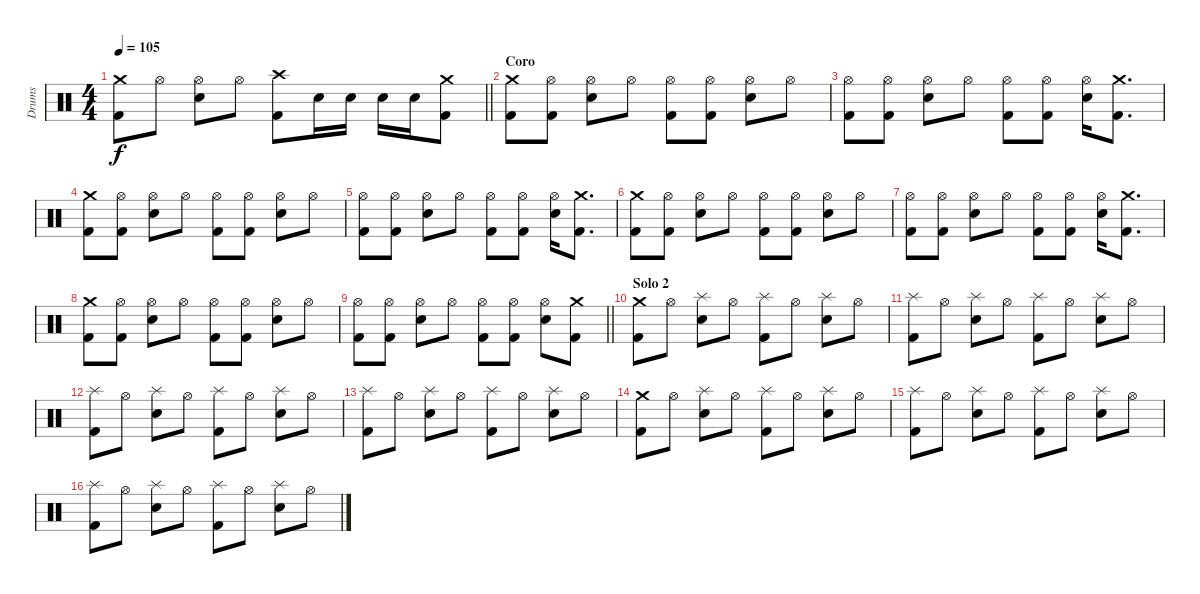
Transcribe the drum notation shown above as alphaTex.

\track ("Drums" "Drums") {instrument percussion}
\staff {score}
\articulation defaults
\ts (4 4)
\tempo 105
\clef neutral
\barLineRight lightlight
\ks c
("Crash medium (hit)" "Kick (hit) 2").8{dy f} "Hi-Hat (open)".8 ("Hi-Hat (open)" "Snare (hit) 2").8 "Hi-Hat (open)".8 ("Crash high (hit)" "Kick (hit) 2").8 "Snare (hit) 2".16 "Snare (hit) 2".16 "Snare (hit) 2".16 "Snare (hit) 2".16 ("Crash medium (hit)" "Kick (hit) 2").8 |
\section ("" "Coro")
("Crash medium (hit)" "Kick (hit) 2").8 ("Hi-Hat (open)" "Kick (hit) 2").8 ("Hi-Hat (open)" "Snare (hit) 2").8 "Hi-Hat (open)".8 ("Hi-Hat (open)" "Kick (hit) 2").8 ("Hi-Hat (open)" "Kick (hit) 2").8 ("Hi-Hat (open)" "Snare (hit) 2").8 "Hi-Hat (open)".8 |
("Hi-Hat (open)" "Kick (hit) 2").8 ("Hi-Hat (open)" "Kick (hit) 2").8 ("Hi-Hat (open)" "Snare (hit) 2").8 "Hi-Hat (open)".8 ("Hi-Hat (open)" "Kick (hit) 2").8 ("Hi-Hat (open)" "Kick (hit) 2").8 ("Hi-Hat (open)" "Snare (hit) 2").16 ("Crash medium (hit)" "Kick (hit) 2").8{d} |
("Crash medium (hit)" "Kick (hit) 2").8 ("Hi-Hat (open)" "Kick (hit) 2").8 ("Hi-Hat (open)" "Snare (hit) 2").8 "Hi-Hat (open)".8 ("Hi-Hat (open)" "Kick (hit) 2").8 ("Hi-Hat (open)" "Kick (hit) 2").8 ("Hi-Hat (open)" "Snare (hit) 2").8 "Hi-Hat (open)".8 |
("Hi-Hat (open)" "Kick (hit) 2").8 ("Hi-Hat (open)" "Kick (hit) 2").8 ("Hi-Hat (open)" "Snare (hit) 2").8 "Hi-Hat (open)".8 ("Hi-Hat (open)" "Kick (hit) 2").8 ("Hi-Hat (open)" "Kick (hit) 2").8 ("Hi-Hat (open)" "Snare (hit) 2").16 ("Crash medium (hit)" "Kick (hit) 2").8{d} |
("Crash medium (hit)" "Kick (hit) 2").8 ("Hi-Hat (open)" "Kick (hit) 2").8 ("Hi-Hat (open)" "Snare (hit) 2").8 "Hi-Hat (open)".8 ("Hi-Hat (open)" "Kick (hit) 2").8 ("Hi-Hat (open)" "Kick (hit) 2").8 ("Hi-Hat (open)" "Snare (hit) 2").8 "Hi-Hat (open)".8 |
("Hi-Hat (open)" "Kick (hit) 2").8 ("Hi-Hat (open)" "Kick (hit) 2").8 ("Hi-Hat (open)" "Snare (hit) 2").8 "Hi-Hat (open)".8 ("Hi-Hat (open)" "Kick (hit) 2").8 ("Hi-Hat (open)" "Kick (hit) 2").8 ("Hi-Hat (open)" "Snare (hit) 2").16 ("Crash medium (hit)" "Kick (hit) 2").8{d} |
("Crash medium (hit)" "Kick (hit) 2").8 ("Hi-Hat (open)" "Kick (hit) 2").8 ("Hi-Hat (open)" "Snare (hit) 2").8 "Hi-Hat (open)".8 ("Hi-Hat (open)" "Kick (hit) 2").8 ("Hi-Hat (open)" "Kick (hit) 2").8 ("Hi-Hat (open)" "Snare (hit) 2").8 "Hi-Hat (open)".8 |
\barLineRight lightlight
("Hi-Hat (open)" "Kick (hit) 2").8 ("Hi-Hat (open)" "Kick (hit) 2").8 ("Hi-Hat (open)" "Snare (hit) 2").8 "Hi-Hat (open)".8 ("Hi-Hat (open)" "Kick (hit) 2").8 ("Hi-Hat (open)" "Kick (hit) 2").8 ("Hi-Hat (open)" "Snare (hit) 2").8 ("Crash medium (hit)" "Kick (hit) 2").8 |
\section ("" "Solo 2")
("Crash medium (hit)" "Kick (hit) 2").8 "Hi-Hat (open)".8 ("Splash (hit)" "Snare (hit) 2").8 "Hi-Hat (open)".8 ("Splash (hit)" "Kick (hit) 2").8 "Hi-Hat (open)".8 ("Splash (hit)" "Snare (hit) 2").8 "Hi-Hat (open)".8 |
("Splash (hit)" "Kick (hit) 2").8 "Hi-Hat (open)".8 ("Splash (hit)" "Snare (hit) 2").8 "Hi-Hat (open)".8 ("Splash (hit)" "Kick (hit) 2").8 "Hi-Hat (open)".8 ("Splash (hit)" "Snare (hit) 2").8 "Hi-Hat (open)".8 |
("Splash (hit)" "Kick (hit) 2").8 "Hi-Hat (open)".8 ("Splash (hit)" "Snare (hit) 2").8 "Hi-Hat (open)".8 ("Splash (hit)" "Kick (hit) 2").8 "Hi-Hat (open)".8 ("Splash (hit)" "Snare (hit) 2").8 "Hi-Hat (open)".8 |
("Splash (hit)" "Kick (hit) 2").8 "Hi-Hat (open)".8 ("Splash (hit)" "Snare (hit) 2").8 "Hi-Hat (open)".8 ("Splash (hit)" "Kick (hit) 2").8 "Hi-Hat (open)".8 ("Splash (hit)" "Snare (hit) 2").8 "Hi-Hat (open)".8 |
("Crash medium (hit)" "Kick (hit) 2").8 "Hi-Hat (open)".8 ("Splash (hit)" "Snare (hit) 2").8 "Hi-Hat (open)".8 ("Splash (hit)" "Kick (hit) 2").8 "Hi-Hat (open)".8 ("Splash (hit)" "Snare (hit) 2").8 "Hi-Hat (open)".8 |
("Splash (hit)" "Kick (hit) 2").8 "Hi-Hat (open)".8 ("Splash (hit)" "Snare (hit) 2").8 "Hi-Hat (open)".8 ("Splash (hit)" "Kick (hit) 2").8 "Hi-Hat (open)".8 ("Splash (hit)" "Snare (hit) 2").8 "Hi-Hat (open)".8 |
("Splash (hit)" "Kick (hit) 2").8 "Hi-Hat (open)".8 ("Splash (hit)" "Snare (hit) 2").8 "Hi-Hat (open)".8 ("Splash (hit)" "Kick (hit) 2").8 "Hi-Hat (open)".8 ("Splash (hit)" "Snare (hit) 2").8 "Hi-Hat (open)".8
